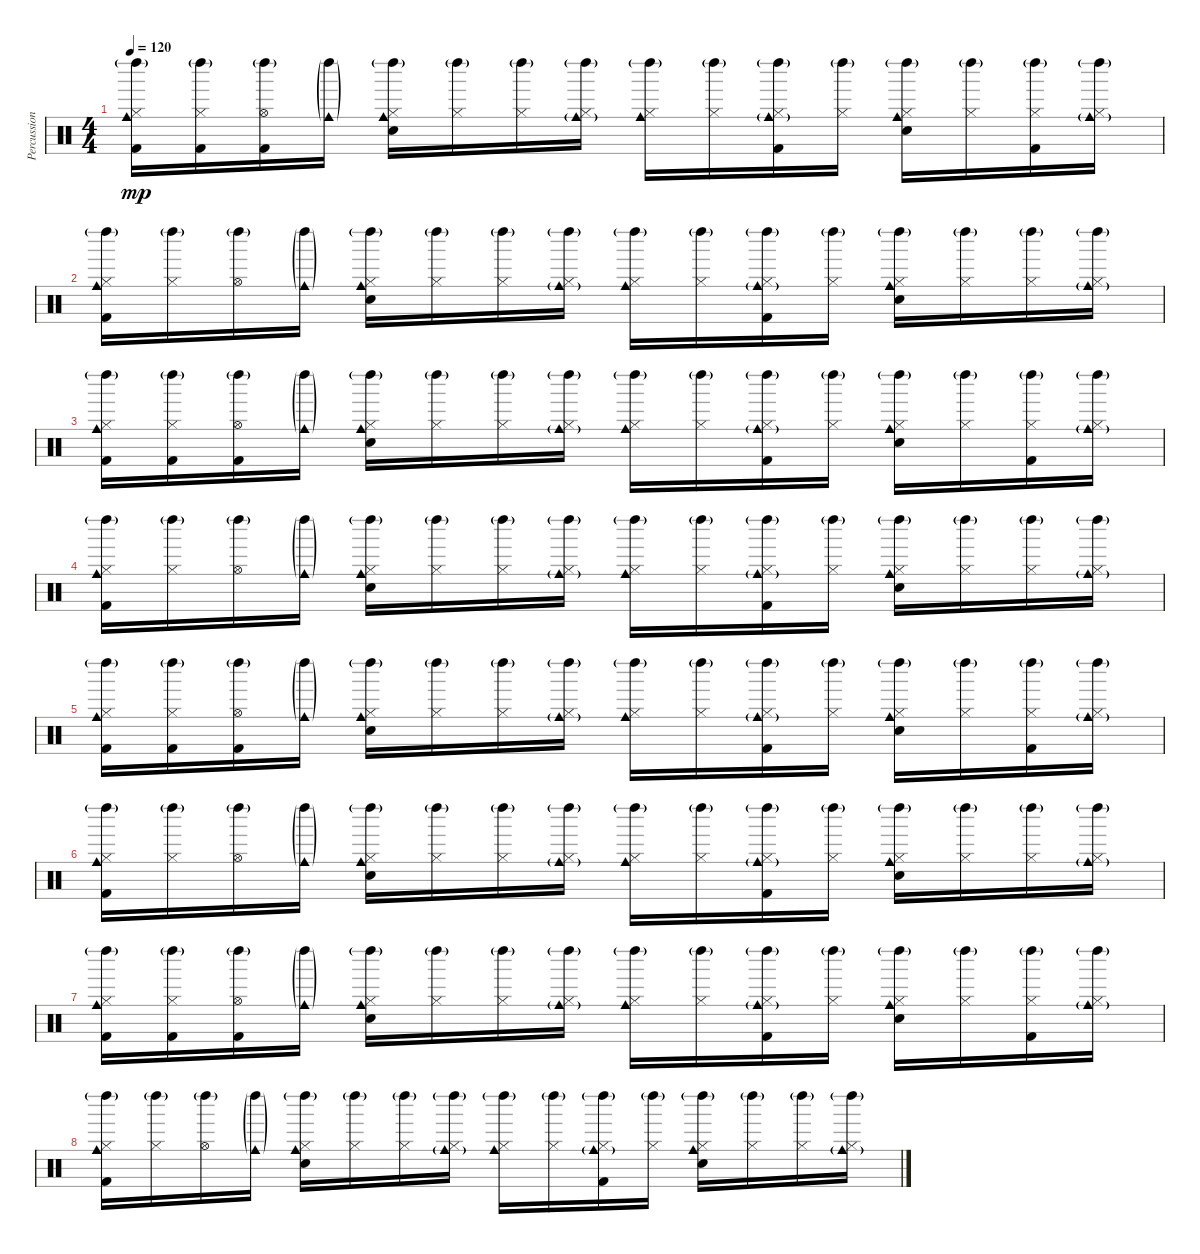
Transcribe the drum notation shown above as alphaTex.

\track ("Percussion" "Percussion") {instrument percussion}
\staff {score}
\articulation defaults
\ts (4 4)
\tempo 120
\clef neutral
\ks c
("Kick (hit) 2" "Hi-Hat (closed)" "Cowbell medium (hit)" "Left Maraca (hit)"{g}).16{dy mp} ("Kick (hit) 2" "Hi-Hat (closed)" "Left Maraca (hit)"{g}).16 ("Kick (hit) 2" "Hi-Hat (open)" "Left Maraca (hit)"{g}).16 ("Cowbell medium (hit)"{g} "Left Maraca (hit)"{g}).16 ("Electric Snare (hit)" "Hi-Hat (closed)" "Cowbell medium (hit)" "Left Maraca (hit)"{g}).16 ("Hi-Hat (closed)" "Left Maraca (hit)"{g}).16 ("Hi-Hat (closed)" "Left Maraca (hit)"{g}).16 ("Hi-Hat (closed)" "Cowbell medium (hit)"{g} "Left Maraca (hit)"{g}).16 ("Hi-Hat (closed)" "Cowbell medium (hit)" "Left Maraca (hit)"{g}).16 ("Hi-Hat (closed)" "Left Maraca (hit)"{g}).16 ("Kick (hit) 2" "Hi-Hat (closed)" "Cowbell medium (hit)"{g} "Left Maraca (hit)"{g}).16 ("Hi-Hat (closed)" "Left Maraca (hit)"{g}).16 ("Electric Snare (hit)" "Hi-Hat (closed)" "Cowbell medium (hit)" "Left Maraca (hit)"{g}).16 ("Hi-Hat (closed)" "Left Maraca (hit)"{g}).16 ("Kick (hit) 2" "Hi-Hat (closed)" "Left Maraca (hit)"{g}).16 ("Hi-Hat (closed)" "Cowbell medium (hit)"{g} "Left Maraca (hit)"{g}).16 |
("Kick (hit) 2" "Hi-Hat (closed)" "Cowbell medium (hit)" "Left Maraca (hit)"{g}).16 ("Hi-Hat (closed)" "Left Maraca (hit)"{g}).16 ("Hi-Hat (open)" "Left Maraca (hit)"{g}).16 ("Cowbell medium (hit)"{g} "Left Maraca (hit)"{g}).16 ("Electric Snare (hit)" "Hi-Hat (closed)" "Cowbell medium (hit)" "Left Maraca (hit)"{g}).16 ("Hi-Hat (closed)" "Left Maraca (hit)"{g}).16 ("Hi-Hat (closed)" "Left Maraca (hit)"{g}).16 ("Hi-Hat (closed)" "Cowbell medium (hit)"{g} "Left Maraca (hit)"{g}).16 ("Hi-Hat (closed)" "Cowbell medium (hit)" "Left Maraca (hit)"{g}).16 ("Hi-Hat (closed)" "Left Maraca (hit)"{g}).16 ("Kick (hit) 2" "Hi-Hat (closed)" "Cowbell medium (hit)"{g} "Left Maraca (hit)"{g}).16 ("Hi-Hat (closed)" "Left Maraca (hit)"{g}).16 ("Electric Snare (hit)" "Hi-Hat (closed)" "Cowbell medium (hit)" "Left Maraca (hit)"{g}).16 ("Hi-Hat (closed)" "Left Maraca (hit)"{g}).16 ("Hi-Hat (closed)" "Left Maraca (hit)"{g}).16 ("Hi-Hat (closed)" "Cowbell medium (hit)"{g} "Left Maraca (hit)"{g}).16 |
("Kick (hit) 2" "Hi-Hat (closed)" "Cowbell medium (hit)" "Left Maraca (hit)"{g}).16 ("Kick (hit) 2" "Hi-Hat (closed)" "Left Maraca (hit)"{g}).16 ("Kick (hit) 2" "Hi-Hat (open)" "Left Maraca (hit)"{g}).16 ("Cowbell medium (hit)"{g} "Left Maraca (hit)"{g}).16 ("Electric Snare (hit)" "Hi-Hat (closed)" "Cowbell medium (hit)" "Left Maraca (hit)"{g}).16 ("Hi-Hat (closed)" "Left Maraca (hit)"{g}).16 ("Hi-Hat (closed)" "Left Maraca (hit)"{g}).16 ("Hi-Hat (closed)" "Cowbell medium (hit)"{g} "Left Maraca (hit)"{g}).16 ("Hi-Hat (closed)" "Cowbell medium (hit)" "Left Maraca (hit)"{g}).16 ("Hi-Hat (closed)" "Left Maraca (hit)"{g}).16 ("Kick (hit) 2" "Hi-Hat (closed)" "Cowbell medium (hit)"{g} "Left Maraca (hit)"{g}).16 ("Hi-Hat (closed)" "Left Maraca (hit)"{g}).16 ("Electric Snare (hit)" "Hi-Hat (closed)" "Cowbell medium (hit)" "Left Maraca (hit)"{g}).16 ("Hi-Hat (closed)" "Left Maraca (hit)"{g}).16 ("Kick (hit) 2" "Hi-Hat (closed)" "Left Maraca (hit)"{g}).16 ("Hi-Hat (closed)" "Cowbell medium (hit)"{g} "Left Maraca (hit)"{g}).16 |
("Kick (hit) 2" "Hi-Hat (closed)" "Cowbell medium (hit)" "Left Maraca (hit)"{g}).16 ("Hi-Hat (closed)" "Left Maraca (hit)"{g}).16 ("Hi-Hat (open)" "Left Maraca (hit)"{g}).16 ("Cowbell medium (hit)"{g} "Left Maraca (hit)"{g}).16 ("Electric Snare (hit)" "Hi-Hat (closed)" "Cowbell medium (hit)" "Left Maraca (hit)"{g}).16 ("Hi-Hat (closed)" "Left Maraca (hit)"{g}).16 ("Hi-Hat (closed)" "Left Maraca (hit)"{g}).16 ("Hi-Hat (closed)" "Cowbell medium (hit)"{g} "Left Maraca (hit)"{g}).16 ("Hi-Hat (closed)" "Cowbell medium (hit)" "Left Maraca (hit)"{g}).16 ("Hi-Hat (closed)" "Left Maraca (hit)"{g}).16 ("Kick (hit) 2" "Hi-Hat (closed)" "Cowbell medium (hit)"{g} "Left Maraca (hit)"{g}).16 ("Hi-Hat (closed)" "Left Maraca (hit)"{g}).16 ("Electric Snare (hit)" "Hi-Hat (closed)" "Cowbell medium (hit)" "Left Maraca (hit)"{g}).16 ("Hi-Hat (closed)" "Left Maraca (hit)"{g}).16 ("Hi-Hat (closed)" "Left Maraca (hit)"{g}).16 ("Hi-Hat (closed)" "Cowbell medium (hit)"{g} "Left Maraca (hit)"{g}).16 |
("Kick (hit) 2" "Hi-Hat (closed)" "Cowbell medium (hit)" "Left Maraca (hit)"{g}).16 ("Kick (hit) 2" "Hi-Hat (closed)" "Left Maraca (hit)"{g}).16 ("Kick (hit) 2" "Hi-Hat (open)" "Left Maraca (hit)"{g}).16 ("Cowbell medium (hit)"{g} "Left Maraca (hit)"{g}).16 ("Electric Snare (hit)" "Hi-Hat (closed)" "Cowbell medium (hit)" "Left Maraca (hit)"{g}).16 ("Hi-Hat (closed)" "Left Maraca (hit)"{g}).16 ("Hi-Hat (closed)" "Left Maraca (hit)"{g}).16 ("Hi-Hat (closed)" "Cowbell medium (hit)"{g} "Left Maraca (hit)"{g}).16 ("Hi-Hat (closed)" "Cowbell medium (hit)" "Left Maraca (hit)"{g}).16 ("Hi-Hat (closed)" "Left Maraca (hit)"{g}).16 ("Kick (hit) 2" "Hi-Hat (closed)" "Cowbell medium (hit)"{g} "Left Maraca (hit)"{g}).16 ("Hi-Hat (closed)" "Left Maraca (hit)"{g}).16 ("Electric Snare (hit)" "Hi-Hat (closed)" "Cowbell medium (hit)" "Left Maraca (hit)"{g}).16 ("Hi-Hat (closed)" "Left Maraca (hit)"{g}).16 ("Kick (hit) 2" "Hi-Hat (closed)" "Left Maraca (hit)"{g}).16 ("Hi-Hat (closed)" "Cowbell medium (hit)"{g} "Left Maraca (hit)"{g}).16 |
("Kick (hit) 2" "Hi-Hat (closed)" "Cowbell medium (hit)" "Left Maraca (hit)"{g}).16 ("Hi-Hat (closed)" "Left Maraca (hit)"{g}).16 ("Hi-Hat (open)" "Left Maraca (hit)"{g}).16 ("Cowbell medium (hit)"{g} "Left Maraca (hit)"{g}).16 ("Electric Snare (hit)" "Hi-Hat (closed)" "Cowbell medium (hit)" "Left Maraca (hit)"{g}).16 ("Hi-Hat (closed)" "Left Maraca (hit)"{g}).16 ("Hi-Hat (closed)" "Left Maraca (hit)"{g}).16 ("Hi-Hat (closed)" "Cowbell medium (hit)"{g} "Left Maraca (hit)"{g}).16 ("Hi-Hat (closed)" "Cowbell medium (hit)" "Left Maraca (hit)"{g}).16 ("Hi-Hat (closed)" "Left Maraca (hit)"{g}).16 ("Kick (hit) 2" "Hi-Hat (closed)" "Cowbell medium (hit)"{g} "Left Maraca (hit)"{g}).16 ("Hi-Hat (closed)" "Left Maraca (hit)"{g}).16 ("Electric Snare (hit)" "Hi-Hat (closed)" "Cowbell medium (hit)" "Left Maraca (hit)"{g}).16 ("Hi-Hat (closed)" "Left Maraca (hit)"{g}).16 ("Hi-Hat (closed)" "Left Maraca (hit)"{g}).16 ("Hi-Hat (closed)" "Cowbell medium (hit)"{g} "Left Maraca (hit)"{g}).16 |
("Kick (hit) 2" "Hi-Hat (closed)" "Cowbell medium (hit)" "Left Maraca (hit)"{g}).16 ("Kick (hit) 2" "Hi-Hat (closed)" "Left Maraca (hit)"{g}).16 ("Kick (hit) 2" "Hi-Hat (open)" "Left Maraca (hit)"{g}).16 ("Cowbell medium (hit)"{g} "Left Maraca (hit)"{g}).16 ("Electric Snare (hit)" "Hi-Hat (closed)" "Cowbell medium (hit)" "Left Maraca (hit)"{g}).16 ("Hi-Hat (closed)" "Left Maraca (hit)"{g}).16 ("Hi-Hat (closed)" "Left Maraca (hit)"{g}).16 ("Hi-Hat (closed)" "Cowbell medium (hit)"{g} "Left Maraca (hit)"{g}).16 ("Hi-Hat (closed)" "Cowbell medium (hit)" "Left Maraca (hit)"{g}).16 ("Hi-Hat (closed)" "Left Maraca (hit)"{g}).16 ("Kick (hit) 2" "Hi-Hat (closed)" "Cowbell medium (hit)"{g} "Left Maraca (hit)"{g}).16 ("Hi-Hat (closed)" "Left Maraca (hit)"{g}).16 ("Electric Snare (hit)" "Hi-Hat (closed)" "Cowbell medium (hit)" "Left Maraca (hit)"{g}).16 ("Hi-Hat (closed)" "Left Maraca (hit)"{g}).16 ("Kick (hit) 2" "Hi-Hat (closed)" "Left Maraca (hit)"{g}).16 ("Hi-Hat (closed)" "Cowbell medium (hit)"{g} "Left Maraca (hit)"{g}).16 |
("Kick (hit) 2" "Hi-Hat (closed)" "Cowbell medium (hit)" "Left Maraca (hit)"{g}).16 ("Hi-Hat (closed)" "Left Maraca (hit)"{g}).16 ("Hi-Hat (open)" "Left Maraca (hit)"{g}).16 ("Cowbell medium (hit)"{g} "Left Maraca (hit)"{g}).16 ("Electric Snare (hit)" "Hi-Hat (closed)" "Cowbell medium (hit)" "Left Maraca (hit)"{g}).16 ("Hi-Hat (closed)" "Left Maraca (hit)"{g}).16 ("Hi-Hat (closed)" "Left Maraca (hit)"{g}).16 ("Hi-Hat (closed)" "Cowbell medium (hit)"{g} "Left Maraca (hit)"{g}).16 ("Hi-Hat (closed)" "Cowbell medium (hit)" "Left Maraca (hit)"{g}).16 ("Hi-Hat (closed)" "Left Maraca (hit)"{g}).16 ("Kick (hit) 2" "Hi-Hat (closed)" "Cowbell medium (hit)"{g} "Left Maraca (hit)"{g}).16 ("Hi-Hat (closed)" "Left Maraca (hit)"{g}).16 ("Electric Snare (hit)" "Hi-Hat (closed)" "Cowbell medium (hit)" "Left Maraca (hit)"{g}).16 ("Hi-Hat (closed)" "Left Maraca (hit)"{g}).16 ("Hi-Hat (closed)" "Left Maraca (hit)"{g}).16 ("Hi-Hat (closed)" "Cowbell medium (hit)"{g} "Left Maraca (hit)"{g}).16
